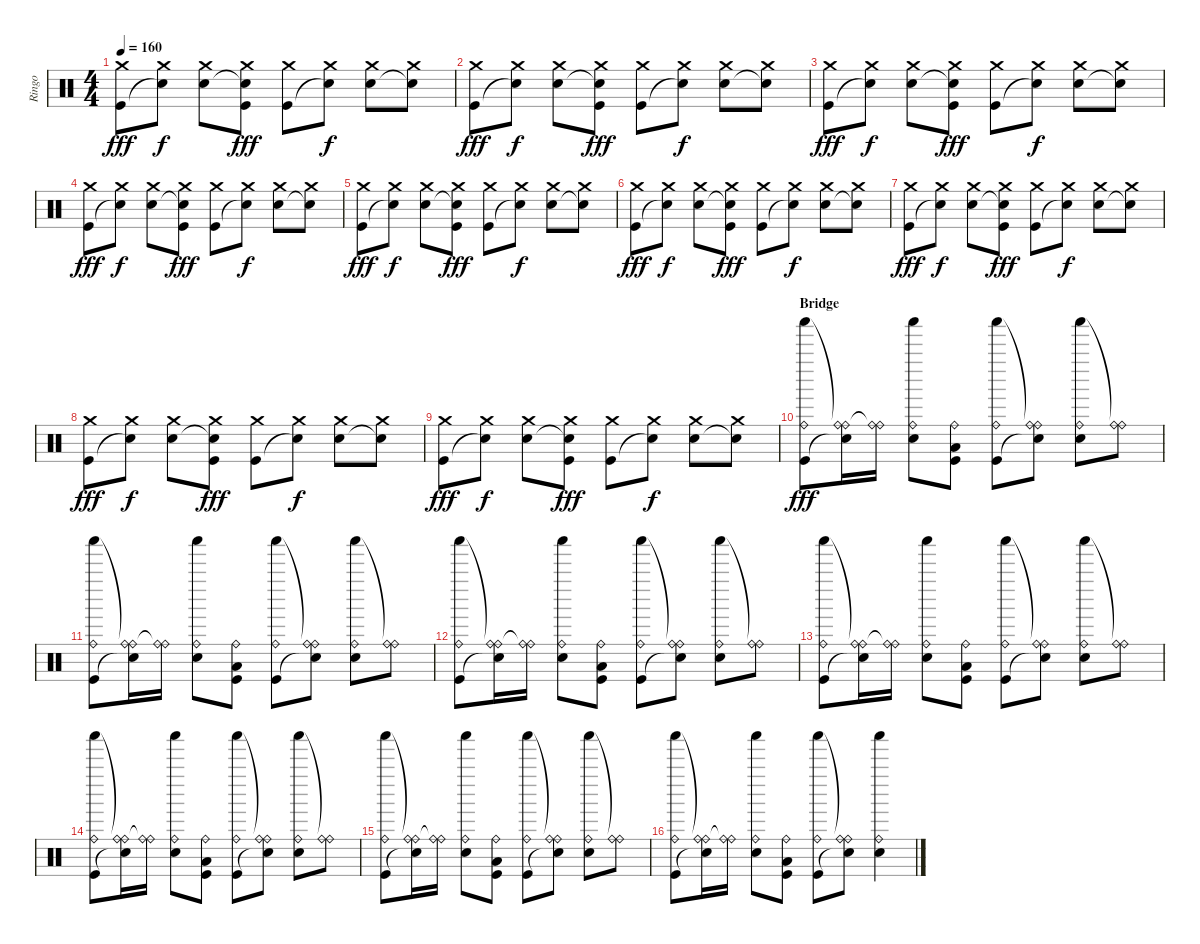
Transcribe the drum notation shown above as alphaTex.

\track ("Ringo" "Ringo") {instrument percussion}
\staff {score}
\articulation defaults
\ts (4 4)
\tempo 160
\clef neutral
\ks c
("Crash medium (hit)" "Kick (hit)").8{dy fff} ("Crash medium (hit)" "Snare (hit)"{t}).8{dy f} ("Crash medium (hit)" "Snare (hit) 2").8 ("Crash medium (hit)" "Snare (hit)"{t} "Kick (hit)").8{dy fff} ("Crash medium (hit)" "Kick (hit)").8 ("Crash medium (hit)" "Snare (hit)"{t}).8{dy f} ("Crash medium (hit)" "Snare (hit) 2").8 ("Crash medium (hit)" "Snare (hit)"{t}).8 |
("Crash medium (hit)" "Kick (hit)").8{dy fff} ("Crash medium (hit)" "Snare (hit)"{t}).8{dy f} ("Crash medium (hit)" "Snare (hit) 2").8 ("Crash medium (hit)" "Snare (hit)"{t} "Kick (hit)").8{dy fff} ("Crash medium (hit)" "Kick (hit)").8 ("Crash medium (hit)" "Snare (hit)"{t}).8{dy f} ("Crash medium (hit)" "Snare (hit) 2").8 ("Crash medium (hit)" "Snare (hit)"{t}).8 |
("Crash medium (hit)" "Kick (hit)").8{dy fff} ("Crash medium (hit)" "Snare (hit)"{t}).8{dy f} ("Crash medium (hit)" "Snare (hit) 2").8 ("Crash medium (hit)" "Snare (hit)"{t} "Kick (hit)").8{dy fff} ("Crash medium (hit)" "Kick (hit)").8 ("Crash medium (hit)" "Snare (hit)"{t}).8{dy f} ("Crash medium (hit)" "Snare (hit) 2").8 ("Crash medium (hit)" "Snare (hit)"{t}).8 |
("Crash medium (hit)" "Kick (hit)").8{dy fff} ("Crash medium (hit)" "Snare (hit)"{t}).8{dy f} ("Crash medium (hit)" "Snare (hit) 2").8 ("Crash medium (hit)" "Snare (hit)"{t} "Kick (hit)").8{dy fff} ("Crash medium (hit)" "Kick (hit)").8 ("Crash medium (hit)" "Snare (hit)"{t}).8{dy f} ("Crash medium (hit)" "Snare (hit) 2").8 ("Crash medium (hit)" "Snare (hit)"{t}).8 |
("Crash medium (hit)" "Kick (hit)").8{dy fff} ("Crash medium (hit)" "Snare (hit)"{t}).8{dy f} ("Crash medium (hit)" "Snare (hit) 2").8 ("Crash medium (hit)" "Snare (hit)"{t} "Kick (hit)").8{dy fff} ("Crash medium (hit)" "Kick (hit)").8 ("Crash medium (hit)" "Snare (hit)"{t}).8{dy f} ("Crash medium (hit)" "Snare (hit) 2").8 ("Crash medium (hit)" "Snare (hit)"{t}).8 |
("Crash medium (hit)" "Kick (hit)").8{dy fff} ("Crash medium (hit)" "Snare (hit)"{t}).8{dy f} ("Crash medium (hit)" "Snare (hit) 2").8 ("Crash medium (hit)" "Snare (hit)"{t} "Kick (hit)").8{dy fff} ("Crash medium (hit)" "Kick (hit)").8 ("Crash medium (hit)" "Snare (hit)"{t}).8{dy f} ("Crash medium (hit)" "Snare (hit) 2").8 ("Crash medium (hit)" "Snare (hit)"{t}).8 |
("Crash medium (hit)" "Kick (hit)").8{dy fff} ("Crash medium (hit)" "Snare (hit)"{t}).8{dy f} ("Crash medium (hit)" "Snare (hit) 2").8 ("Crash medium (hit)" "Snare (hit)"{t} "Kick (hit)").8{dy fff} ("Crash medium (hit)" "Kick (hit)").8 ("Crash medium (hit)" "Snare (hit)"{t}).8{dy f} ("Crash medium (hit)" "Snare (hit) 2").8 ("Crash medium (hit)" "Snare (hit)"{t}).8 |
("Crash medium (hit)" "Kick (hit)").8{dy fff} ("Crash medium (hit)" "Snare (hit)"{t}).8{dy f} ("Crash medium (hit)" "Snare (hit) 2").8 ("Crash medium (hit)" "Snare (hit)"{t} "Kick (hit)").8{dy fff} ("Crash medium (hit)" "Kick (hit)").8 ("Crash medium (hit)" "Snare (hit)"{t}).8{dy f} ("Crash medium (hit)" "Snare (hit) 2").8 ("Crash medium (hit)" "Snare (hit)"{t}).8 |
("Crash medium (hit)" "Kick (hit)").8{dy fff} ("Crash medium (hit)" "Snare (hit)"{t}).8{dy f} ("Crash medium (hit)" "Snare (hit) 2").8 ("Crash medium (hit)" "Snare (hit)"{t} "Kick (hit)").8{dy fff} ("Crash medium (hit)" "Kick (hit)").8 ("Crash medium (hit)" "Snare (hit)"{t}).8{dy f} ("Crash medium (hit)" "Snare (hit) 2").8 ("Crash medium (hit)" "Snare (hit)"{t}).8 |
\section ("" "Bridge")
("Shaker (hit)" "Ride (bell)" "Kick (hit)").8{dy fff} ("Ride (bell)"{t} "Ride (bell)" "Snare (hit)"{t}).16 ("Ride (bell)"{t} "Ride (bell)").16 ("Shaker (hit)" "Ride (bell)" "Snare (hit) 2").8 ("Ride (bell)" "Low Floor Tom (hit)" "Kick (hit)").8 ("Shaker (hit)" "Ride (bell)" "Kick (hit)").8 ("Ride (bell)"{t} "Ride (bell)" "Snare (hit)"{t}).8 ("Shaker (hit)" "Ride (bell)" "Snare (hit) 2").8 ("Ride (bell)"{t} "Ride (bell)").8 |
("Shaker (hit)" "Ride (bell)" "Kick (hit)").8 ("Ride (bell)"{t} "Ride (bell)" "Snare (hit)"{t}).16 ("Ride (bell)"{t} "Ride (bell)").16 ("Shaker (hit)" "Ride (bell)" "Snare (hit) 2").8 ("Ride (bell)" "Low Floor Tom (hit)" "Kick (hit)").8 ("Shaker (hit)" "Ride (bell)" "Kick (hit)").8 ("Ride (bell)"{t} "Ride (bell)" "Snare (hit)"{t}).8 ("Shaker (hit)" "Ride (bell)" "Snare (hit) 2").8 ("Ride (bell)"{t} "Ride (bell)").8 |
("Shaker (hit)" "Ride (bell)" "Kick (hit)").8 ("Ride (bell)"{t} "Ride (bell)" "Snare (hit)"{t}).16 ("Ride (bell)"{t} "Ride (bell)").16 ("Shaker (hit)" "Ride (bell)" "Snare (hit) 2").8 ("Ride (bell)" "Low Floor Tom (hit)" "Kick (hit)").8 ("Shaker (hit)" "Ride (bell)" "Kick (hit)").8 ("Ride (bell)"{t} "Ride (bell)" "Snare (hit)"{t}).8 ("Shaker (hit)" "Ride (bell)" "Snare (hit) 2").8 ("Ride (bell)"{t} "Ride (bell)").8 |
("Shaker (hit)" "Ride (bell)" "Kick (hit)").8 ("Ride (bell)"{t} "Ride (bell)" "Snare (hit)"{t}).16 ("Ride (bell)"{t} "Ride (bell)").16 ("Shaker (hit)" "Ride (bell)" "Snare (hit) 2").8 ("Ride (bell)" "Low Floor Tom (hit)" "Kick (hit)").8 ("Shaker (hit)" "Ride (bell)" "Kick (hit)").8 ("Ride (bell)"{t} "Ride (bell)" "Snare (hit)"{t}).8 ("Shaker (hit)" "Ride (bell)" "Snare (hit) 2").8 ("Ride (bell)"{t} "Ride (bell)").8 |
("Shaker (hit)" "Ride (bell)" "Kick (hit)").8 ("Ride (bell)"{t} "Ride (bell)" "Snare (hit)"{t}).16 ("Ride (bell)"{t} "Ride (bell)").16 ("Shaker (hit)" "Ride (bell)" "Snare (hit) 2").8 ("Ride (bell)" "Low Floor Tom (hit)" "Kick (hit)").8 ("Shaker (hit)" "Ride (bell)" "Kick (hit)").8 ("Ride (bell)"{t} "Ride (bell)" "Snare (hit)"{t}).8 ("Shaker (hit)" "Ride (bell)" "Snare (hit) 2").8 ("Ride (bell)"{t} "Ride (bell)").8 |
("Shaker (hit)" "Ride (bell)" "Kick (hit)").8 ("Ride (bell)"{t} "Ride (bell)" "Snare (hit)"{t}).16 ("Ride (bell)"{t} "Ride (bell)").16 ("Shaker (hit)" "Ride (bell)" "Snare (hit) 2").8 ("Ride (bell)" "Low Floor Tom (hit)" "Kick (hit)").8 ("Shaker (hit)" "Ride (bell)" "Kick (hit)").8 ("Ride (bell)"{t} "Ride (bell)" "Snare (hit)"{t}).8 ("Shaker (hit)" "Ride (bell)" "Snare (hit) 2").8 ("Ride (bell)"{t} "Ride (bell)").8 |
("Shaker (hit)" "Ride (bell)" "Kick (hit)").8 ("Ride (bell)"{t} "Ride (bell)" "Snare (hit)"{t}).16 ("Ride (bell)"{t} "Ride (bell)").16 ("Shaker (hit)" "Ride (bell)" "Snare (hit) 2").8 ("Ride (bell)" "Low Floor Tom (hit)" "Kick (hit)").8 ("Shaker (hit)" "Ride (bell)" "Kick (hit)").8 ("Ride (bell)"{t} "Ride (bell)" "Snare (hit)"{t}).8 ("Shaker (hit)" "Ride (bell)" "Snare (hit) 2").4
